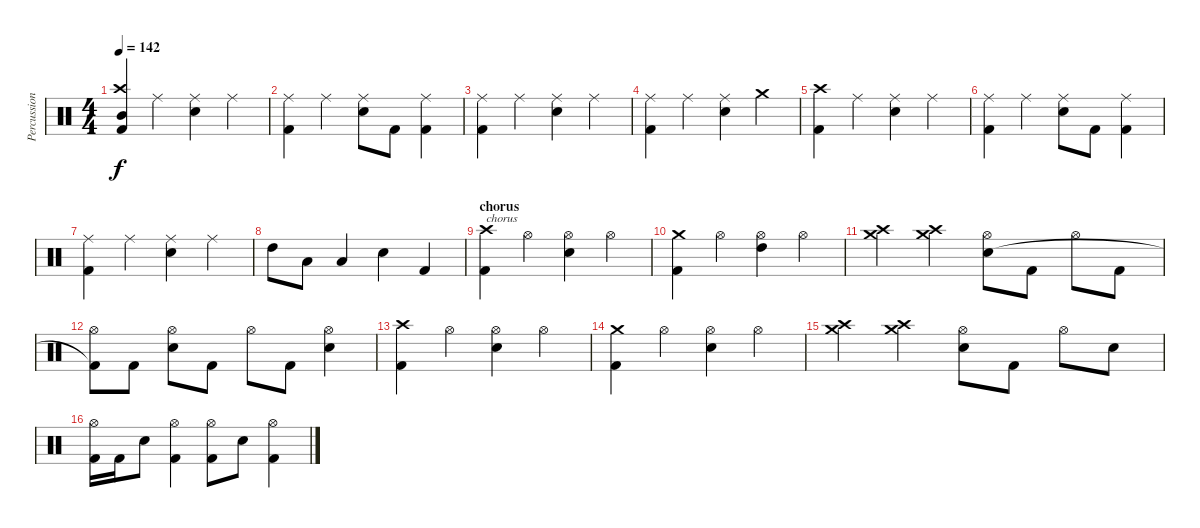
\track ("Percussion" "Percussion") {instrument percussion}
\staff {score}
\articulation defaults
\ts (4 4)
\tempo 142
\clef neutral
\ks c
("Mid Tom (hit)" "Crash high (hit)" "Kick (hit) 2").4{dy f} "Ride (middle)".4 ("Ride (middle)" "Snare (hit) 2").4 "Ride (middle)".4 |
("Ride (middle)" "Kick (hit) 2").4 "Ride (middle)".4 ("Ride (middle)" "Snare (hit) 2").8 "Kick (hit) 2".8 ("Ride (middle)" "Kick (hit) 2").4 |
("Ride (middle)" "Kick (hit) 2").4 "Ride (middle)".4 ("Ride (middle)" "Snare (hit) 2").4 "Ride (middle)".4 |
("Ride (middle)" "Kick (hit) 2").4 "Ride (middle)".4 ("Ride (middle)" "Snare (hit) 2").4 "Crash medium (hit)".4 |
("Crash high (hit)" "Kick (hit) 2").4 "Ride (middle)".4 ("Ride (middle)" "Snare (hit) 2").4 "Ride (middle)".4 |
("Ride (middle)" "Kick (hit) 2").4 "Ride (middle)".4 ("Ride (middle)" "Snare (hit) 2").8 "Kick (hit) 2".8 ("Ride (middle)" "Kick (hit) 2").4 |
("Ride (middle)" "Kick (hit) 2").4 "Ride (middle)".4 ("Ride (middle)" "Snare (hit) 2").4 "Ride (middle)".4 |
"High Tom (hit)".8 "Low Tom (hit)".8 "Low Tom (hit)".4 "Snare (hit) 2".4 "Kick (hit) 2".4 |
\section ("" "chorus")
("Crash high (hit)" "Kick (hit) 2").4{txt "chorus"} "Hi-Hat (open)".4 ("Hi-Hat (open)" "Snare (hit) 2").4 "Hi-Hat (open)".4 |
("Crash medium (hit)" "Kick (hit) 2").4 "Hi-Hat (open)".4 ("Hi-Hat (open)" "High Tom (hit)").4 "Hi-Hat (open)".4 |
("Crash medium (hit)" "Crash high (hit)").4 ("Crash medium (hit)" "Crash high (hit)").4 ("Hi-Hat (open)" "Snare (hit) 2").8 "Kick (hit) 2".8 "Hi-Hat (open)".8 "Kick (hit) 2".8 |
("Hi-Hat (open)" "Kick (hit) 2"{t}).8 "Kick (hit) 2".8 ("Hi-Hat (open)" "Snare (hit) 2").8 "Kick (hit) 2".8 "Hi-Hat (open)".8 "Kick (hit) 2".8 ("Hi-Hat (open)" "Snare (hit) 2").4 |
("Crash high (hit)" "Kick (hit) 2").4 "Hi-Hat (open)".4 ("Hi-Hat (open)" "Snare (hit) 2").4 "Hi-Hat (open)".4 |
("Crash medium (hit)" "Kick (hit) 2").4 "Hi-Hat (open)".4 ("Hi-Hat (open)" "Snare (hit) 2").4 "Hi-Hat (open)".4 |
("Crash medium (hit)" "Crash high (hit)").4 ("Crash medium (hit)" "Crash high (hit)").4 ("Hi-Hat (open)" "Snare (hit) 2").8 "Kick (hit) 2".8 "Hi-Hat (open)".8 "Snare (hit) 2".8 |
("Hi-Hat (open)" "Kick (hit) 2").16 "Kick (hit) 2".16 "Snare (hit) 2".8 ("Hi-Hat (open)" "Kick (hit) 2").4 ("Hi-Hat (open)" "Kick (hit) 2").8 "Snare (hit) 2".8 ("Hi-Hat (open)" "Kick (hit) 2").4
